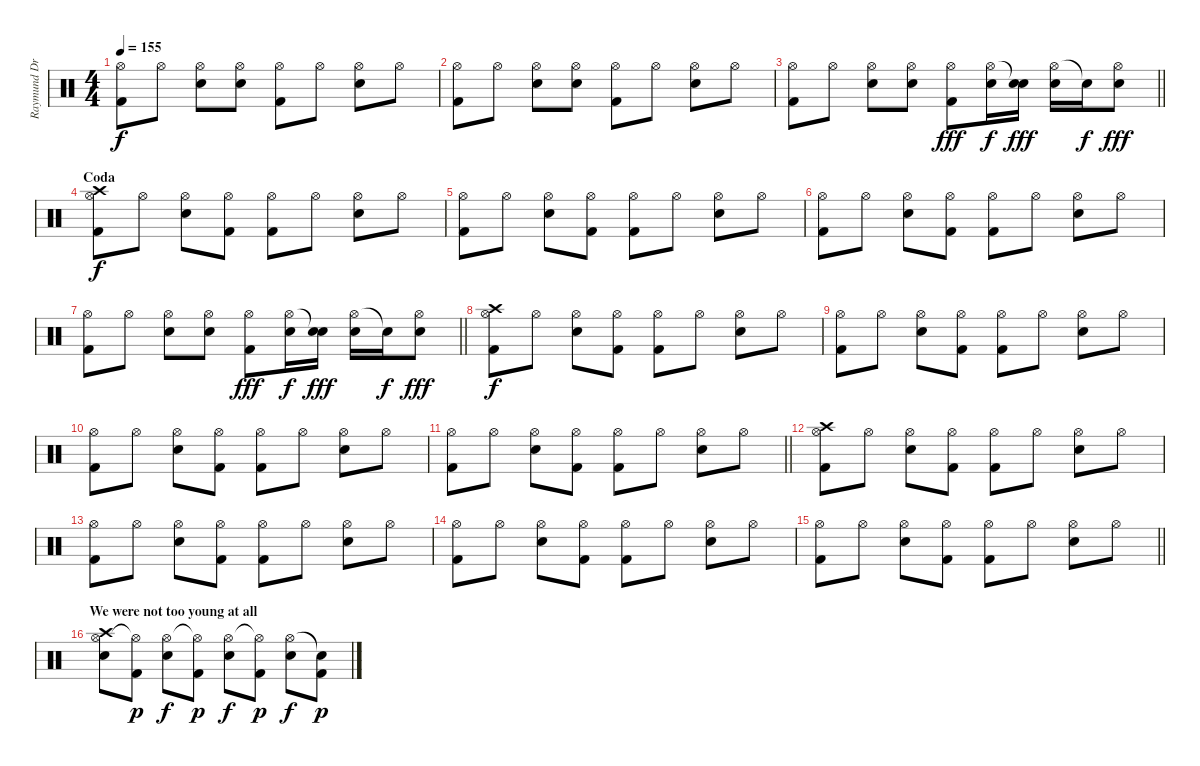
\track ("Raymund Drums" "Raymund Dr") {instrument percussion}
\staff {score}
\articulation defaults
\ts (4 4)
\tempo 155
\clef neutral
\ks c
("Hi-Hat (open)" "Kick (hit) 2").8{dy f} "Hi-Hat (open)".8 ("Hi-Hat (open)" "Snare (hit) 2").8 ("Hi-Hat (open)" "Snare (hit) 2").8 ("Hi-Hat (open)" "Kick (hit) 2").8 "Hi-Hat (open)".8 ("Hi-Hat (open)" "Snare (hit) 2").8 "Hi-Hat (open)".8 |
("Hi-Hat (open)" "Kick (hit) 2").8 "Hi-Hat (open)".8 ("Hi-Hat (open)" "Snare (hit) 2").8 ("Hi-Hat (open)" "Snare (hit) 2").8 ("Hi-Hat (open)" "Kick (hit) 2").8 "Hi-Hat (open)".8 ("Hi-Hat (open)" "Snare (hit) 2").8 "Hi-Hat (open)".8 |
\barLineRight lightlight
("Hi-Hat (open)" "Kick (hit) 2").8 "Hi-Hat (open)".8 ("Hi-Hat (open)" "Snare (hit) 2").8 ("Hi-Hat (open)" "Snare (hit) 2").8 ("Hi-Hat (open)" "Kick (hit) 2").8{dy fff} ("Hi-Hat (open)" "Snare (hit) 2").16{dy f} ("Snare (hit)"{t} "Snare (hit) 2").16{dy fff} ("Hi-Hat (open)" "Snare (hit) 2").16 "Snare (hit)"{t}.16{dy f} ("Hi-Hat (open)" "Snare (hit) 2").8{dy fff} |
\section ("" "Coda")
("Hi-Hat (open)" "Kick (hit) 2" "Crash high (hit)").8{dy f} "Hi-Hat (open)".8 ("Hi-Hat (open)" "Snare (hit) 2").8 ("Hi-Hat (open)" "Kick (hit) 2").8 ("Hi-Hat (open)" "Kick (hit) 2").8 "Hi-Hat (open)".8 ("Hi-Hat (open)" "Snare (hit) 2").8 "Hi-Hat (open)".8 |
("Hi-Hat (open)" "Kick (hit) 2").8 "Hi-Hat (open)".8 ("Hi-Hat (open)" "Snare (hit) 2").8 ("Hi-Hat (open)" "Kick (hit) 2").8 ("Hi-Hat (open)" "Kick (hit) 2").8 "Hi-Hat (open)".8 ("Hi-Hat (open)" "Snare (hit) 2").8 "Hi-Hat (open)".8 |
("Hi-Hat (open)" "Kick (hit) 2").8 "Hi-Hat (open)".8 ("Hi-Hat (open)" "Snare (hit) 2").8 ("Hi-Hat (open)" "Kick (hit) 2").8 ("Hi-Hat (open)" "Kick (hit) 2").8 "Hi-Hat (open)".8 ("Hi-Hat (open)" "Snare (hit) 2").8 "Hi-Hat (open)".8 |
\barLineRight lightlight
("Hi-Hat (open)" "Kick (hit) 2").8 "Hi-Hat (open)".8 ("Hi-Hat (open)" "Snare (hit) 2").8 ("Hi-Hat (open)" "Snare (hit) 2").8 ("Hi-Hat (open)" "Kick (hit) 2").8{dy fff} ("Hi-Hat (open)" "Snare (hit) 2").16{dy f} ("Snare (hit)"{t} "Snare (hit) 2").16{dy fff} ("Hi-Hat (open)" "Snare (hit) 2").16 "Snare (hit)"{t}.16{dy f} ("Hi-Hat (open)" "Snare (hit) 2").8{dy fff} |
("Hi-Hat (open)" "Kick (hit) 2" "Crash high (hit)").8{dy f} "Hi-Hat (open)".8 ("Hi-Hat (open)" "Snare (hit) 2").8 ("Hi-Hat (open)" "Kick (hit) 2").8 ("Hi-Hat (open)" "Kick (hit) 2").8 "Hi-Hat (open)".8 ("Hi-Hat (open)" "Snare (hit) 2").8 "Hi-Hat (open)".8 |
("Hi-Hat (open)" "Kick (hit) 2").8 "Hi-Hat (open)".8 ("Hi-Hat (open)" "Snare (hit) 2").8 ("Hi-Hat (open)" "Kick (hit) 2").8 ("Hi-Hat (open)" "Kick (hit) 2").8 "Hi-Hat (open)".8 ("Hi-Hat (open)" "Snare (hit) 2").8 "Hi-Hat (open)".8 |
("Hi-Hat (open)" "Kick (hit) 2").8 "Hi-Hat (open)".8 ("Hi-Hat (open)" "Snare (hit) 2").8 ("Hi-Hat (open)" "Kick (hit) 2").8 ("Hi-Hat (open)" "Kick (hit) 2").8 "Hi-Hat (open)".8 ("Hi-Hat (open)" "Snare (hit) 2").8 "Hi-Hat (open)".8 |
\barLineRight lightlight
("Hi-Hat (open)" "Kick (hit) 2").8 "Hi-Hat (open)".8 ("Hi-Hat (open)" "Snare (hit) 2").8 ("Hi-Hat (open)" "Kick (hit) 2").8 ("Hi-Hat (open)" "Kick (hit) 2").8 "Hi-Hat (open)".8 ("Hi-Hat (open)" "Snare (hit) 2").8 "Hi-Hat (open)".8 |
("Hi-Hat (open)" "Kick (hit) 2" "Crash high (hit)").8 "Hi-Hat (open)".8 ("Hi-Hat (open)" "Snare (hit) 2").8 ("Hi-Hat (open)" "Kick (hit) 2").8 ("Hi-Hat (open)" "Kick (hit) 2").8 "Hi-Hat (open)".8 ("Hi-Hat (open)" "Snare (hit) 2").8 "Hi-Hat (open)".8 |
("Hi-Hat (open)" "Kick (hit) 2").8 "Hi-Hat (open)".8 ("Hi-Hat (open)" "Snare (hit) 2").8 ("Hi-Hat (open)" "Kick (hit) 2").8 ("Hi-Hat (open)" "Kick (hit) 2").8 "Hi-Hat (open)".8 ("Hi-Hat (open)" "Snare (hit) 2").8 "Hi-Hat (open)".8 |
("Hi-Hat (open)" "Kick (hit) 2").8 "Hi-Hat (open)".8 ("Hi-Hat (open)" "Snare (hit) 2").8 ("Hi-Hat (open)" "Kick (hit) 2").8 ("Hi-Hat (open)" "Kick (hit) 2").8 "Hi-Hat (open)".8 ("Hi-Hat (open)" "Snare (hit) 2").8 "Hi-Hat (open)".8 |
\barLineRight lightlight
("Hi-Hat (open)" "Kick (hit) 2").8 "Hi-Hat (open)".8 ("Hi-Hat (open)" "Snare (hit) 2").8 ("Hi-Hat (open)" "Kick (hit) 2").8 ("Hi-Hat (open)" "Kick (hit) 2").8 "Hi-Hat (open)".8 ("Hi-Hat (open)" "Snare (hit) 2").8 "Hi-Hat (open)".8 |
\section ("" "We were not too young at all")
("Hi-Hat (open)" "Snare (hit) 2" "Crash high (hit)").8 ("Hi-Hat (open)"{t} "Kick (hit) 2").8{dy p} ("Hi-Hat (open)" "Snare (hit) 2").8{dy f} ("Hi-Hat (open)"{t} "Kick (hit) 2").8{dy p} ("Hi-Hat (open)" "Snare (hit) 2").8{dy f} ("Hi-Hat (open)"{t} "Kick (hit) 2").8{dy p} ("Hi-Hat (open)" "Snare (hit) 2").8{dy f} ("Snare (hit)"{t} "Kick (hit) 2").8{dy p}
